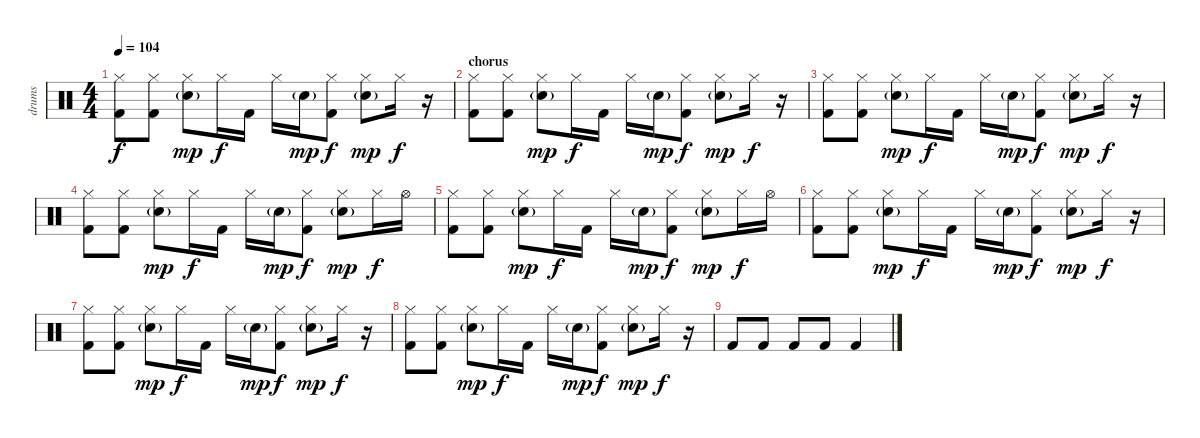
\track ("drums" "drums") {instrument percussion}
\staff {score}
\articulation defaults
\ts (4 4)
\tempo 104
\clef neutral
\ks c
("Hi-Hat (closed)" "Kick (hit) 2").8{dy f} ("Hi-Hat (closed)" "Kick (hit) 2").8 ("Hi-Hat (closed)" "Electric Snare (hit)"{g}).8{dy mp} "Hi-Hat (closed)".16{dy f} "Kick (hit) 2".16 "Hi-Hat (closed)".16 "Electric Snare (hit)"{g}.16{dy mp} ("Hi-Hat (closed)" "Kick (hit) 2").8{dy f} ("Hi-Hat (closed)" "Electric Snare (hit)"{g}).8{dy mp} "Hi-Hat (closed)".16{dy f} r.16 |
\section ("" "chorus")
("Hi-Hat (closed)" "Kick (hit) 2").8 ("Hi-Hat (closed)" "Kick (hit) 2").8 ("Hi-Hat (closed)" "Electric Snare (hit)"{g}).8{dy mp} "Hi-Hat (closed)".16{dy f} "Kick (hit) 2".16 "Hi-Hat (closed)".16 "Electric Snare (hit)"{g}.16{dy mp} ("Hi-Hat (closed)" "Kick (hit) 2").8{dy f} ("Hi-Hat (closed)" "Electric Snare (hit)"{g}).8{dy mp} "Hi-Hat (closed)".16{dy f} r.16 |
("Hi-Hat (closed)" "Kick (hit) 2").8 ("Hi-Hat (closed)" "Kick (hit) 2").8 ("Hi-Hat (closed)" "Electric Snare (hit)"{g}).8{dy mp} "Hi-Hat (closed)".16{dy f} "Kick (hit) 2".16 "Hi-Hat (closed)".16 "Electric Snare (hit)"{g}.16{dy mp} ("Hi-Hat (closed)" "Kick (hit) 2").8{dy f} ("Hi-Hat (closed)" "Electric Snare (hit)"{g}).8{dy mp} "Hi-Hat (closed)".16{dy f} r.16 |
("Hi-Hat (closed)" "Kick (hit) 2").8 ("Hi-Hat (closed)" "Kick (hit) 2").8 ("Hi-Hat (closed)" "Electric Snare (hit)"{g}).8{dy mp} "Hi-Hat (closed)".16{dy f} "Kick (hit) 2".16 "Hi-Hat (closed)".16 "Electric Snare (hit)"{g}.16{dy mp} ("Hi-Hat (closed)" "Kick (hit) 2").8{dy f} ("Hi-Hat (closed)" "Electric Snare (hit)"{g}).8{dy mp} "Hi-Hat (closed)".16{dy f} "Hi-Hat (open)".16 |
("Hi-Hat (closed)" "Kick (hit) 2").8 ("Hi-Hat (closed)" "Kick (hit) 2").8 ("Hi-Hat (closed)" "Electric Snare (hit)"{g}).8{dy mp} "Hi-Hat (closed)".16{dy f} "Kick (hit) 2".16 "Hi-Hat (closed)".16 "Electric Snare (hit)"{g}.16{dy mp} ("Hi-Hat (closed)" "Kick (hit) 2").8{dy f} ("Hi-Hat (closed)" "Electric Snare (hit)"{g}).8{dy mp} "Hi-Hat (closed)".16{dy f} "Hi-Hat (open)".16 |
("Hi-Hat (closed)" "Kick (hit) 2").8 ("Hi-Hat (closed)" "Kick (hit) 2").8 ("Hi-Hat (closed)" "Electric Snare (hit)"{g}).8{dy mp} "Hi-Hat (closed)".16{dy f} "Kick (hit) 2".16 "Hi-Hat (closed)".16 "Electric Snare (hit)"{g}.16{dy mp} ("Hi-Hat (closed)" "Kick (hit) 2").8{dy f} ("Hi-Hat (closed)" "Electric Snare (hit)"{g}).8{dy mp} "Hi-Hat (closed)".16{dy f} r.16 |
("Hi-Hat (closed)" "Kick (hit) 2").8 ("Hi-Hat (closed)" "Kick (hit) 2").8 ("Hi-Hat (closed)" "Electric Snare (hit)"{g}).8{dy mp} "Hi-Hat (closed)".16{dy f} "Kick (hit) 2".16 "Hi-Hat (closed)".16 "Electric Snare (hit)"{g}.16{dy mp} ("Hi-Hat (closed)" "Kick (hit) 2").8{dy f} ("Hi-Hat (closed)" "Electric Snare (hit)"{g}).8{dy mp} "Hi-Hat (closed)".16{dy f} r.16 |
("Hi-Hat (closed)" "Kick (hit) 2").8 ("Hi-Hat (closed)" "Kick (hit) 2").8 ("Hi-Hat (closed)" "Electric Snare (hit)"{g}).8{dy mp} "Hi-Hat (closed)".16{dy f} "Kick (hit) 2".16 "Hi-Hat (closed)".16 "Electric Snare (hit)"{g}.16{dy mp} ("Hi-Hat (closed)" "Kick (hit) 2").8{dy f} ("Hi-Hat (closed)" "Electric Snare (hit)"{g}).8{dy mp} "Hi-Hat (closed)".16{dy f} r.16 |
"Kick (hit) 2".8 "Kick (hit) 2".8 "Kick (hit) 2".8 "Kick (hit) 2".8 "Kick (hit) 2".4
